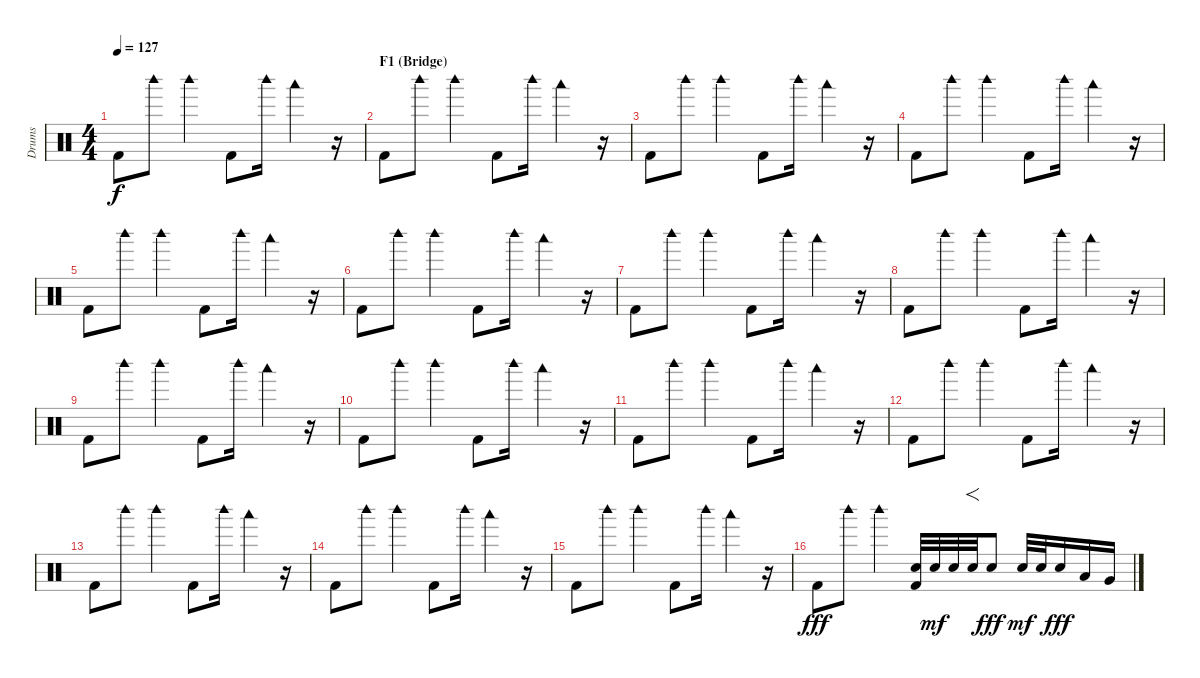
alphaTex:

\track ("Drums" "Drums") {instrument percussion}
\staff {score}
\articulation defaults
\ts (4 4)
\tempo 127
\clef neutral
\ks c "Kick (hit) 2".8{dy f} "Woodblock high (hit)".8 "Woodblock high (hit)".4 "Kick (hit) 2".8 "Woodblock high (hit)".16 "Woodblock low (hit)".4
r.16 |
\section ("" "F1 (Bridge)")
"Kick (hit) 2".8 "Woodblock high (hit)".8 "Woodblock high (hit)".4 "Kick (hit) 2".8 "Woodblock high (hit)".16 "Woodblock low (hit)".4 r.16 |
"Kick (hit) 2".8 "Woodblock high (hit)".8 "Woodblock high (hit)".4 "Kick (hit) 2".8 "Woodblock high (hit)".16 "Woodblock low (hit)".4 r.16 |
"Kick (hit) 2".8 "Woodblock high (hit)".8 "Woodblock high (hit)".4 "Kick (hit) 2".8 "Woodblock high (hit)".16 "Woodblock low (hit)".4 r.16 |
"Kick (hit) 2".8 "Woodblock high (hit)".8 "Woodblock high (hit)".4 "Kick (hit) 2".8 "Woodblock high (hit)".16 "Woodblock low (hit)".4 r.16 |
"Kick (hit) 2".8 "Woodblock high (hit)".8 "Woodblock high (hit)".4 "Kick (hit) 2".8 "Woodblock high (hit)".16 "Woodblock low (hit)".4 r.16 |
"Kick (hit) 2".8 "Woodblock high (hit)".8 "Woodblock high (hit)".4 "Kick (hit) 2".8 "Woodblock high (hit)".16 "Woodblock low (hit)".4 r.16 |
"Kick (hit) 2".8 "Woodblock high (hit)".8 "Woodblock high (hit)".4 "Kick (hit) 2".8 "Woodblock high (hit)".16 "Woodblock low (hit)".4 r.16 |
"Kick (hit) 2".8 "Woodblock high (hit)".8 "Woodblock high (hit)".4 "Kick (hit) 2".8 "Woodblock high (hit)".16 "Woodblock low (hit)".4 r.16 |
"Kick (hit) 2".8 "Woodblock high (hit)".8 "Woodblock high (hit)".4 "Kick (hit) 2".8 "Woodblock high (hit)".16 "Woodblock low (hit)".4 r.16 |
"Kick (hit) 2".8 "Woodblock high (hit)".8 "Woodblock high (hit)".4 "Kick (hit) 2".8 "Woodblock high (hit)".16 "Woodblock low (hit)".4 r.16 |
"Kick (hit) 2".8 "Woodblock high (hit)".8 "Woodblock high (hit)".4 "Kick (hit) 2".8 "Woodblock high (hit)".16 "Woodblock low (hit)".4 r.16 |
"Kick (hit) 2".8 "Woodblock high (hit)".8 "Woodblock high (hit)".4 "Kick (hit) 2".8 "Woodblock high (hit)".16 "Woodblock low (hit)".4 r.16 |
"Kick (hit) 2".8 "Woodblock high (hit)".8 "Woodblock high (hit)".4 "Kick (hit) 2".8 "Woodblock high (hit)".16 "Woodblock low (hit)".4 r.16 |
"Kick (hit) 2".8 "Woodblock high (hit)".8 "Woodblock high (hit)".4 "Kick (hit) 2".8 "Woodblock high (hit)".16 "Woodblock low (hit)".4 r.16 |
"Kick (hit) 2".8{dy fff} "Woodblock high (hit)".8 "Woodblock high (hit)".4 ("Electric Snare (hit)" "Kick (hit) 2").32 "Electric Snare (hit)".32{dy mf} "Electric Snare (hit)".32 "Electric Snare (hit)".32{f} "Electric Snare (hit)".8{dy fff} "Electric Snare (hit)".32{dy mf} "Electric Snare (hit)".32 "Electric Snare (hit)".16{dy fff} "Low Tom (hit)".16 "Very Low Tom (hit)".16
